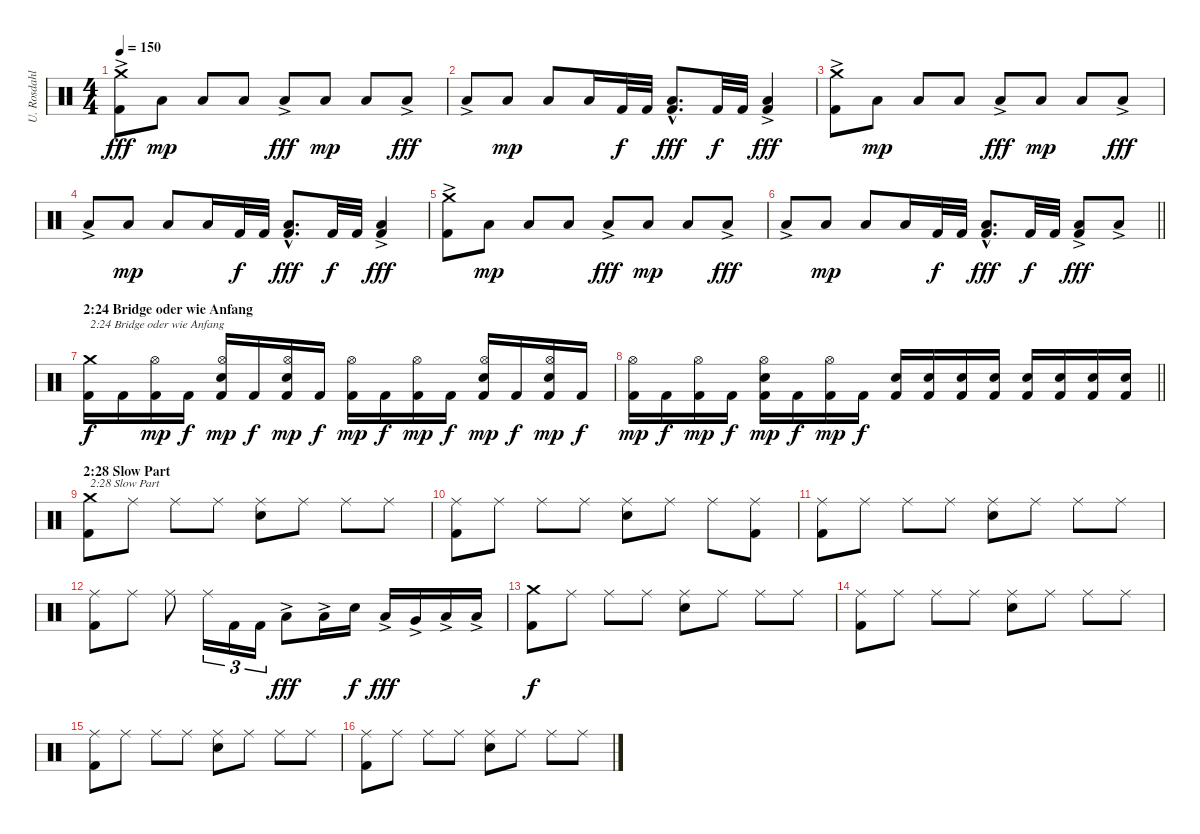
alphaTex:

\track ("U. Rosdahl" "U. Rosdahl") {instrument percussion}
\staff {score}
\articulation defaults
\ts (4 4)
\tempo 150
\clef neutral
\ks c
("Kick (hit) 2" "Crash medium (hit)"{ac}).8{dy fff} "Low Tom (hit)".8{dy mp} "Low Tom (hit)".8 "Low Tom (hit)".8 "Low Tom (hit)"{ac}.8{dy fff} "Low Tom (hit)".8{dy mp} "Low Tom (hit)".8 "Low Tom (hit)"{ac}.8{dy fff} |
"Low Tom (hit)"{ac}.8 "Low Tom (hit)".8{dy mp} "Low Tom (hit)".8 "Low Tom (hit)".16 "Kick (hit) 2".32{dy f} "Kick (hit) 2".32 ("Kick (hit) 2"{hac} "Low Tom (hit)"{hac}).8{d dy fff} "Kick (hit) 2".32{dy f} "Kick (hit) 2".32 ("Kick (hit) 2" "Low Tom (hit)"{ac}).4{dy fff} |
("Kick (hit) 2" "Crash medium (hit)"{ac}).8 "Low Tom (hit)".8{dy mp} "Low Tom (hit)".8 "Low Tom (hit)".8 "Low Tom (hit)"{ac}.8{dy fff} "Low Tom (hit)".8{dy mp} "Low Tom (hit)".8 "Low Tom (hit)"{ac}.8{dy fff} |
"Low Tom (hit)"{ac}.8 "Low Tom (hit)".8{dy mp} "Low Tom (hit)".8 "Low Tom (hit)".16 "Kick (hit) 2".32{dy f} "Kick (hit) 2".32 ("Kick (hit) 2"{hac} "Low Tom (hit)"{hac}).8{d dy fff} "Kick (hit) 2".32{dy f} "Kick (hit) 2".32 ("Kick (hit) 2" "Low Tom (hit)"{ac}).4{dy fff} |
("Kick (hit) 2" "Crash medium (hit)"{ac}).8 "Low Tom (hit)".8{dy mp} "Low Tom (hit)".8 "Low Tom (hit)".8 "Low Tom (hit)"{ac}.8{dy fff} "Low Tom (hit)".8{dy mp} "Low Tom (hit)".8 "Low Tom (hit)"{ac}.8{dy fff} |
\barLineRight lightlight "Low Tom (hit)"{ac}.8 "Low Tom (hit)".8{dy mp} "Low Tom (hit)".8 "Low Tom (hit)".16 "Kick (hit) 2".32{dy f} "Kick (hit) 2".32
("Kick (hit) 2"{hac} "Low Tom (hit)"{hac}).8{d dy fff} "Kick (hit) 2".32{dy f} "Kick (hit) 2".32 ("Kick (hit) 2" "Low Tom (hit)"{ac}).8{dy fff} "Low Tom (hit)"{ac}.8 |
\section ("" "2:24 Bridge oder wie Anfang")
("Kick (hit) 2" "Crash medium (hit)").16{txt "2:24 Bridge oder wie Anfang" dy f} "Kick (hit) 2".16 ("Kick (hit) 2" "Hi-Hat (open)").16{dy mp} "Kick (hit) 2".16{dy f} ("Kick (hit) 2" "Electric Snare (hit)" "Hi-Hat (open)").16{dy mp} "Kick (hit) 2".16{dy f} ("Kick (hit) 2" "Electric Snare (hit)" "Hi-Hat (open)").16{dy mp} "Kick (hit) 2".16{dy f} ("Kick (hit) 2" "Hi-Hat (open)").16{dy mp} "Kick (hit) 2".16{dy f} ("Kick (hit) 2" "Hi-Hat (open)").16{dy mp} "Kick (hit) 2".16{dy f} ("Kick (hit) 2" "Electric Snare (hit)" "Hi-Hat (open)").16{dy mp} "Kick (hit) 2".16{dy f} ("Kick (hit) 2" "Electric Snare (hit)" "Hi-Hat (open)").16{dy mp} "Kick (hit) 2".16{dy f} |
\barLineRight lightlight
("Kick (hit) 2" "Hi-Hat (open)").16{dy mp} "Kick (hit) 2".16{dy f} ("Kick (hit) 2" "Hi-Hat (open)").16{dy mp} "Kick (hit) 2".16{dy f} ("Kick (hit) 2" "Electric Snare (hit)" "Hi-Hat (open)").16{dy mp} "Kick (hit) 2".16{dy f} ("Kick (hit) 2" "Hi-Hat (open)").16{dy mp} "Kick (hit) 2".16{dy f} ("Kick (hit) 2" "Electric Snare (hit)").16 ("Kick (hit) 2" "Electric Snare (hit)").16 ("Kick (hit) 2" "Electric Snare (hit)").16 ("Kick (hit) 2" "Electric Snare (hit)").16 ("Kick (hit) 2" "Electric Snare (hit)").16 ("Kick (hit) 2" "Electric Snare (hit)").16 ("Kick (hit) 2" "Electric Snare (hit)").16 ("Kick (hit) 2" "Electric Snare (hit)").16 |
\section ("" "2:28 Slow Part")
("Kick (hit) 2" "Crash medium (hit)").8{txt "2:28 Slow Part"} "Ride (middle)".8 "Ride (middle)".8 "Ride (middle)".8 ("Electric Snare (hit)" "Ride (middle)").8 "Ride (middle)".8 "Ride (middle)".8 "Ride (middle)".8 |
("Kick (hit) 2" "Ride (middle)").8 "Ride (middle)".8 "Ride (middle)".8 "Ride (middle)".8 ("Electric Snare (hit)" "Ride (middle)").8 "Ride (middle)".8 "Ride (middle)".8 ("Kick (hit) 2" "Ride (middle)").8 |
("Kick (hit) 2" "Ride (middle)").8 "Ride (middle)".8 "Ride (middle)".8 "Ride (middle)".8 ("Electric Snare (hit)" "Ride (middle)").8 "Ride (middle)".8 "Ride (middle)".8 "Ride (middle)".8 |
("Kick (hit) 2" "Ride (middle)").8 "Ride (middle)".8 "Ride (middle)".8 "Ride (middle)".16{tu (3 2)} "Kick (hit) 2".16{tu (3 2)} "Kick (hit) 2".16{tu (3 2)} "Low Tom (hit)"{ac}.8{dy fff} "Low Tom (hit)"{ac}.16 "Electric Snare (hit)".16{dy f} "Low Tom (hit)"{ac}.16{dy fff} "Very Low Tom (hit)"{ac}.16 "Low Floor Tom (hit)"{ac}.16 "Low Floor Tom (hit)"{ac}.16 |
("Kick (hit) 2" "Crash medium (hit)").8{dy f} "Ride (middle)".8 "Ride (middle)".8 "Ride (middle)".8 ("Electric Snare (hit)" "Ride (middle)").8 "Ride (middle)".8 "Ride (middle)".8 "Ride (middle)".8 |
("Kick (hit) 2" "Ride (middle)").8 "Ride (middle)".8 "Ride (middle)".8 "Ride (middle)".8 ("Electric Snare (hit)" "Ride (middle)").8 "Ride (middle)".8 "Ride (middle)".8 "Ride (middle)".8 |
("Kick (hit) 2" "Ride (middle)").8 "Ride (middle)".8 "Ride (middle)".8 "Ride (middle)".8 ("Electric Snare (hit)" "Ride (middle)").8 "Ride (middle)".8 "Ride (middle)".8 "Ride (middle)".8 |
("Kick (hit) 2" "Ride (middle)").8 "Ride (middle)".8 "Ride (middle)".8 "Ride (middle)".8 ("Electric Snare (hit)" "Ride (middle)").8 "Ride (middle)".8 "Ride (middle)".8 "Ride (middle)".8
